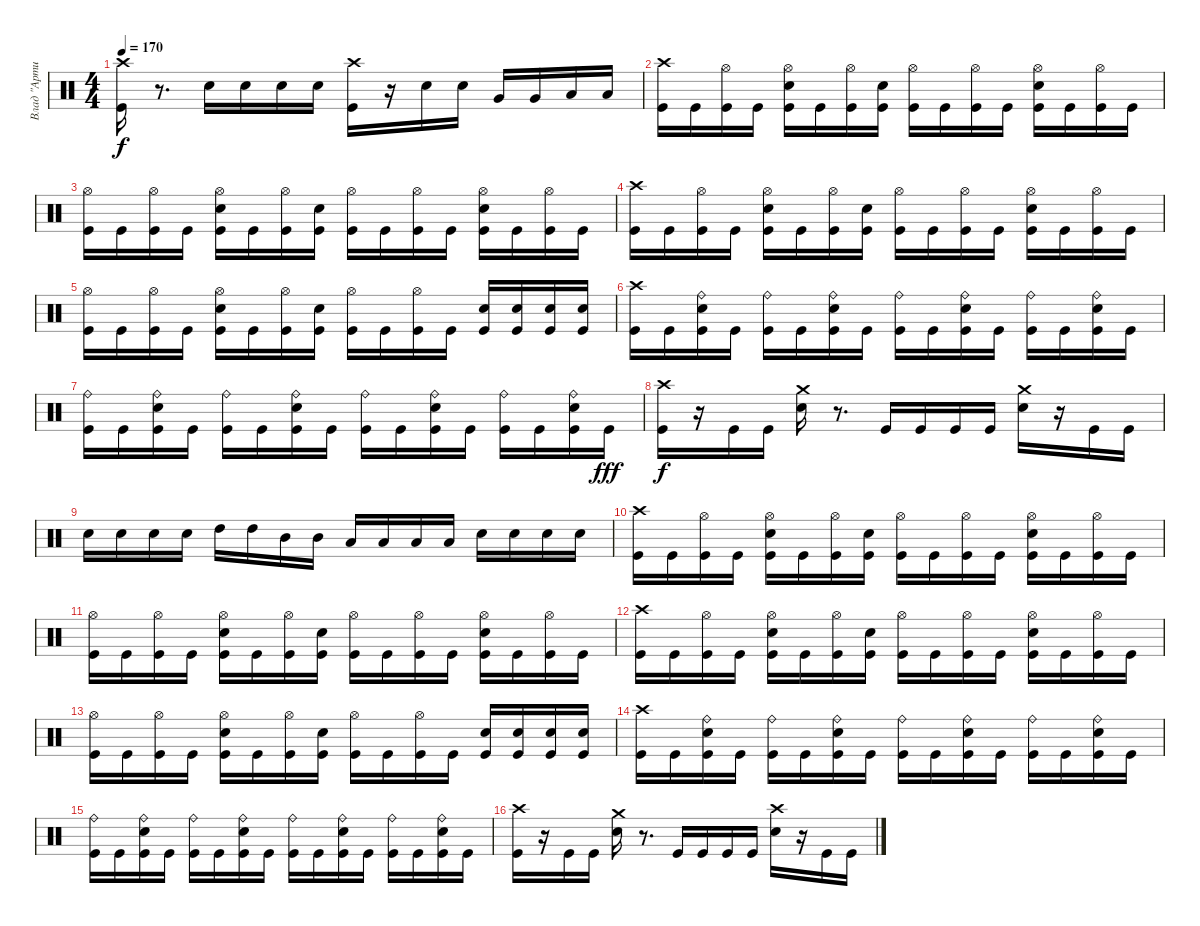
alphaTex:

\track ("Влад \"Артист\"" "Влад \"Арти") {instrument percussion}
\staff {score}
\articulation defaults
\ts (4 4)
\tempo 170
\clef neutral
\ks c
("Crash high (hit)" "Kick (hit)").16{dy f} r.8{d} "Snare (hit) 2".16 "Snare (hit) 2".16 "Snare (hit) 2".16 "Snare (hit) 2".16 ("Crash high (hit)" "Kick (hit)").16 r.16 "Snare (hit) 2".16 "Snare (hit) 2".16 "Very Low Tom (hit)".16 "Very Low Tom (hit)".16 "Low Floor Tom (hit)".16 "Low Floor Tom (hit)".16 |
("Crash high (hit)" "Kick (hit)").16 "Kick (hit)".16 ("Hi-Hat (open)" "Kick (hit)").16 "Kick (hit)".16 ("Snare (hit) 2" "Hi-Hat (open)" "Kick (hit)").16 "Kick (hit)".16 ("Hi-Hat (open)" "Kick (hit)").16 ("Kick (hit)" "Snare (hit) 2").16 ("Hi-Hat (open)" "Kick (hit)").16 "Kick (hit)".16 ("Hi-Hat (open)" "Kick (hit)").16 "Kick (hit)".16 ("Hi-Hat (open)" "Kick (hit)" "Snare (hit) 2").16 "Kick (hit)".16 ("Hi-Hat (open)" "Kick (hit)").16 "Kick (hit)".16 |
("Hi-Hat (open)" "Kick (hit)").16 "Kick (hit)".16 ("Hi-Hat (open)" "Kick (hit)").16 "Kick (hit)".16 ("Snare (hit) 2" "Hi-Hat (open)" "Kick (hit)").16 "Kick (hit)".16 ("Hi-Hat (open)" "Kick (hit)").16 ("Snare (hit) 2" "Kick (hit)").16 ("Kick (hit)" "Hi-Hat (open)").16 "Kick (hit)".16 ("Hi-Hat (open)" "Kick (hit)").16 "Kick (hit)".16 ("Hi-Hat (open)" "Kick (hit)" "Snare (hit) 2").16 "Kick (hit)".16 ("Hi-Hat (open)" "Kick (hit)").16 "Kick (hit)".16 |
("Crash high (hit)" "Kick (hit)").16 "Kick (hit)".16 ("Hi-Hat (open)" "Kick (hit)").16 "Kick (hit)".16 ("Snare (hit) 2" "Hi-Hat (open)" "Kick (hit)").16 "Kick (hit)".16 ("Hi-Hat (open)" "Kick (hit)").16 ("Kick (hit)" "Snare (hit) 2").16 ("Hi-Hat (open)" "Kick (hit)").16 "Kick (hit)".16 ("Hi-Hat (open)" "Kick (hit)").16 "Kick (hit)".16 ("Hi-Hat (open)" "Kick (hit)" "Snare (hit) 2").16 "Kick (hit)".16 ("Hi-Hat (open)" "Kick (hit)").16 "Kick (hit)".16 |
("Hi-Hat (open)" "Kick (hit)").16 "Kick (hit)".16 ("Hi-Hat (open)" "Kick (hit)").16 "Kick (hit)".16 ("Snare (hit) 2" "Hi-Hat (open)" "Kick (hit)").16 "Kick (hit)".16 ("Hi-Hat (open)" "Kick (hit)").16 ("Snare (hit) 2" "Kick (hit)").16 ("Kick (hit)" "Hi-Hat (open)").16 "Kick (hit)".16 ("Hi-Hat (open)" "Kick (hit)").16 "Kick (hit)".16 ("Kick (hit)" "Snare (hit) 2").16 ("Snare (hit) 2" "Kick (hit)").16 ("Snare (hit) 2" "Kick (hit)").16 ("Snare (hit) 2" "Kick (hit)").16 |
("Crash high (hit)" "Kick (hit)").16 "Kick (hit)".16 ("Ride (bell)" "Snare (hit) 2" "Kick (hit)").16 "Kick (hit)".16 ("Ride (bell)" "Kick (hit)").16 "Kick (hit)".16 ("Ride (bell)" "Snare (hit) 2" "Kick (hit)").16 "Kick (hit)".16 ("Ride (bell)" "Kick (hit)").16 "Kick (hit)".16 ("Ride (bell)" "Snare (hit) 2" "Kick (hit)").16 "Kick (hit)".16 ("Ride (bell)" "Kick (hit)").16 "Kick (hit)".16 ("Ride (bell)" "Snare (hit) 2" "Kick (hit)").16 "Kick (hit)".16 |
("Ride (bell)" "Kick (hit)").16 "Kick (hit)".16 ("Ride (bell)" "Snare (hit) 2" "Kick (hit)").16 "Kick (hit)".16 ("Ride (bell)" "Kick (hit)").16 "Kick (hit)".16 ("Snare (hit) 2" "Ride (bell)" "Kick (hit)").16 "Kick (hit)".16 ("Ride (bell)" "Kick (hit)").16 "Kick (hit)".16 ("Ride (bell)" "Snare (hit) 2" "Kick (hit)").16 "Kick (hit)".16 ("Ride (bell)" "Kick (hit)").16 "Kick (hit)".16 ("Ride (bell)" "Snare (hit) 2" "Kick (hit)").16 "Kick (hit)".16{dy fff} |
("Crash high (hit)" "Kick (hit)").16{dy f} r.16 "Kick (hit)".16 "Kick (hit)".16 ("Crash medium (hit)" "Snare (hit) 2").16 r.8{d} "Kick (hit)".16 "Kick (hit)".16 "Kick (hit)".16 "Kick (hit)".16 ("Crash medium (hit)" "Snare (hit) 2").16 r.16 "Kick (hit)".16 "Kick (hit)".16 |
"Snare (hit) 2".16 "Snare (hit) 2".16 "Snare (hit) 2".16 "Snare (hit) 2".16 "High Tom (hit)".16 "High Tom (hit)".16 "Mid Tom (hit)".16 "Mid Tom (hit)".16 "Low Tom (hit)".16 "Low Tom (hit)".16 "Low Tom (hit)".16 "Low Tom (hit)".16 "Snare (hit) 2".16 "Snare (hit) 2".16 "Snare (hit) 2".16 "Snare (hit) 2".16 |
("Crash high (hit)" "Kick (hit)").16 "Kick (hit)".16 ("Hi-Hat (open)" "Kick (hit)").16 "Kick (hit)".16 ("Snare (hit) 2" "Hi-Hat (open)" "Kick (hit)").16 "Kick (hit)".16 ("Hi-Hat (open)" "Kick (hit)").16 ("Kick (hit)" "Snare (hit) 2").16 ("Hi-Hat (open)" "Kick (hit)").16 "Kick (hit)".16 ("Hi-Hat (open)" "Kick (hit)").16 "Kick (hit)".16 ("Hi-Hat (open)" "Kick (hit)" "Snare (hit) 2").16 "Kick (hit)".16 ("Hi-Hat (open)" "Kick (hit)").16 "Kick (hit)".16 |
("Hi-Hat (open)" "Kick (hit)").16 "Kick (hit)".16 ("Hi-Hat (open)" "Kick (hit)").16 "Kick (hit)".16 ("Snare (hit) 2" "Hi-Hat (open)" "Kick (hit)").16 "Kick (hit)".16 ("Hi-Hat (open)" "Kick (hit)").16 ("Snare (hit) 2" "Kick (hit)").16 ("Kick (hit)" "Hi-Hat (open)").16 "Kick (hit)".16 ("Hi-Hat (open)" "Kick (hit)").16 "Kick (hit)".16 ("Hi-Hat (open)" "Kick (hit)" "Snare (hit) 2").16 "Kick (hit)".16 ("Hi-Hat (open)" "Kick (hit)").16 "Kick (hit)".16 |
("Crash high (hit)" "Kick (hit)").16 "Kick (hit)".16 ("Hi-Hat (open)" "Kick (hit)").16 "Kick (hit)".16 ("Snare (hit) 2" "Hi-Hat (open)" "Kick (hit)").16 "Kick (hit)".16 ("Hi-Hat (open)" "Kick (hit)").16 ("Kick (hit)" "Snare (hit) 2").16 ("Hi-Hat (open)" "Kick (hit)").16 "Kick (hit)".16 ("Hi-Hat (open)" "Kick (hit)").16 "Kick (hit)".16 ("Hi-Hat (open)" "Kick (hit)" "Snare (hit) 2").16 "Kick (hit)".16 ("Hi-Hat (open)" "Kick (hit)").16 "Kick (hit)".16 |
("Hi-Hat (open)" "Kick (hit)").16 "Kick (hit)".16 ("Hi-Hat (open)" "Kick (hit)").16 "Kick (hit)".16 ("Snare (hit) 2" "Hi-Hat (open)" "Kick (hit)").16 "Kick (hit)".16 ("Hi-Hat (open)" "Kick (hit)").16 ("Snare (hit) 2" "Kick (hit)").16 ("Kick (hit)" "Hi-Hat (open)").16 "Kick (hit)".16 ("Hi-Hat (open)" "Kick (hit)").16 "Kick (hit)".16 ("Kick (hit)" "Snare (hit) 2").16 ("Snare (hit) 2" "Kick (hit)").16 ("Snare (hit) 2" "Kick (hit)").16 ("Snare (hit) 2" "Kick (hit)").16 |
("Crash high (hit)" "Kick (hit)").16 "Kick (hit)".16 ("Ride (bell)" "Snare (hit) 2" "Kick (hit)").16 "Kick (hit)".16 ("Ride (bell)" "Kick (hit)").16 "Kick (hit)".16 ("Ride (bell)" "Snare (hit) 2" "Kick (hit)").16 "Kick (hit)".16 ("Ride (bell)" "Kick (hit)").16 "Kick (hit)".16 ("Ride (bell)" "Snare (hit) 2" "Kick (hit)").16 "Kick (hit)".16 ("Ride (bell)" "Kick (hit)").16 "Kick (hit)".16 ("Ride (bell)" "Snare (hit) 2" "Kick (hit)").16 "Kick (hit)".16 |
("Ride (bell)" "Kick (hit)").16 "Kick (hit)".16 ("Ride (bell)" "Snare (hit) 2" "Kick (hit)").16 "Kick (hit)".16 ("Ride (bell)" "Kick (hit)").16 "Kick (hit)".16 ("Snare (hit) 2" "Ride (bell)" "Kick (hit)").16 "Kick (hit)".16 ("Ride (bell)" "Kick (hit)").16 "Kick (hit)".16 ("Ride (bell)" "Snare (hit) 2" "Kick (hit)").16 "Kick (hit)".16 ("Ride (bell)" "Kick (hit)").16 "Kick (hit)".16 ("Ride (bell)" "Snare (hit) 2" "Kick (hit)").16 "Kick (hit)".16 |
("Crash high (hit)" "Kick (hit)").16 r.16 "Kick (hit)".16 "Kick (hit)".16 ("Snare (hit) 2" "Crash medium (hit)").16 r.8{d} "Kick (hit)".16 "Kick (hit)".16 "Kick (hit)".16 "Kick (hit)".16 ("Snare (hit) 2" "Crash high (hit)").16 r.16 "Kick (hit)".16 "Kick (hit)".16
